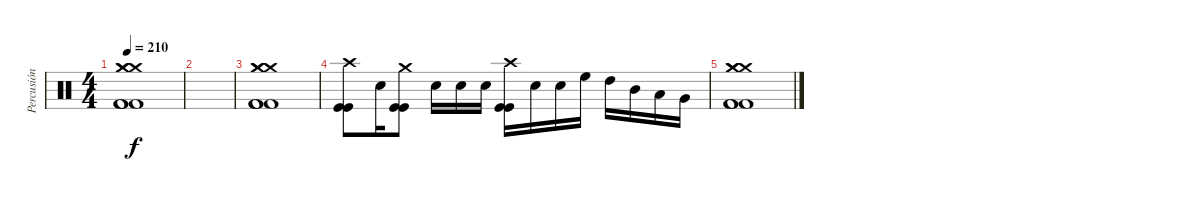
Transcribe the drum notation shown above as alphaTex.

\track ("Percusión" "Percusión") {instrument percussion}
\staff {score}
\articulation defaults
\ts (4 4)
\tempo 210
\clef neutral
\ks c
("Crash medium (hit)" "Crash medium (hit)" "Crash medium (hit)" "Kick (hit) 2" "Kick (hit) 2" "Kick (hit) 2").1{dy f} |
|
("Crash medium (hit)" "Crash medium (hit)" "Crash medium (hit)" "Kick (hit) 2" "Kick (hit) 2" "Kick (hit) 2").1 |
("Kick (hit)" "Kick (hit)" "Crash high (hit)").8 "Snare (hit) 2".16 ("Kick (hit)" "Kick (hit)" "Crash medium (hit)").8 "Snare (hit) 2".16 "Snare (hit) 2".16 "Snare (hit) 2".16 ("Kick (hit)" "Kick (hit)" "Crash high (hit)").16 "Snare (hit) 2".16 "Snare (hit) 2".16 "High Floor Tom (hit)".16 "High Tom (hit)".16 "Mid Tom (hit)".16 "Low Tom (hit)".16 "Very Low Tom (hit)".16 |
("Crash medium (hit)" "Crash medium (hit)" "Crash medium (hit)" "Kick (hit) 2" "Kick (hit) 2" "Kick (hit) 2").1
